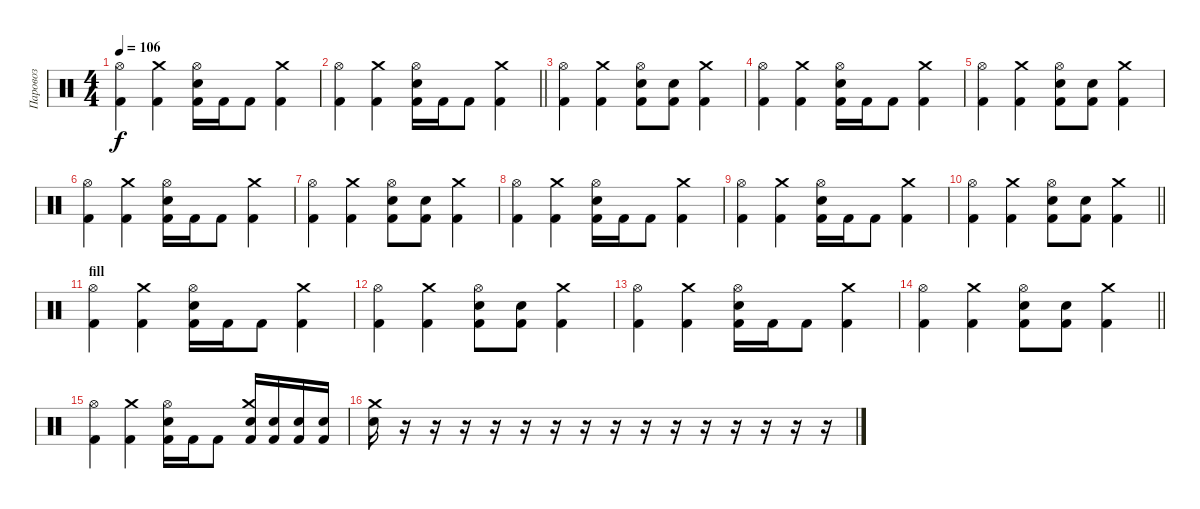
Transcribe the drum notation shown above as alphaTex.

\track ("Паровоз" "Паровоз") {instrument percussion}
\staff {score}
\articulation defaults
\ts (4 4)
\tempo 106
\clef neutral
\ks c
("Hi-Hat (open)" "Kick (hit) 2").4{dy f} ("Crash medium (hit)" "Kick (hit) 2").4 ("Hi-Hat (open)" "Electric Snare (hit)" "Kick (hit) 2").16 "Kick (hit) 2".16 "Kick (hit) 2".8 ("Crash medium (hit)" "Kick (hit) 2").4 |
\barLineRight lightlight
("Hi-Hat (open)" "Kick (hit) 2").4 ("Crash medium (hit)" "Kick (hit) 2").4 ("Hi-Hat (open)" "Electric Snare (hit)" "Kick (hit) 2").16 "Kick (hit) 2".16 "Kick (hit) 2".8 ("Crash medium (hit)" "Kick (hit) 2").4 |
("Hi-Hat (open)" "Kick (hit) 2").4 ("Crash medium (hit)" "Kick (hit) 2").4 ("Hi-Hat (open)" "Electric Snare (hit)" "Kick (hit) 2").8 ("Electric Snare (hit)" "Kick (hit) 2").8 ("Crash medium (hit)" "Kick (hit) 2").4 |
("Hi-Hat (open)" "Kick (hit) 2").4 ("Crash medium (hit)" "Kick (hit) 2").4 ("Hi-Hat (open)" "Electric Snare (hit)" "Kick (hit) 2").16 "Kick (hit) 2".16 "Kick (hit) 2".8 ("Crash medium (hit)" "Kick (hit) 2").4 |
("Hi-Hat (open)" "Kick (hit) 2").4 ("Crash medium (hit)" "Kick (hit) 2").4 ("Hi-Hat (open)" "Electric Snare (hit)" "Kick (hit) 2").8 ("Electric Snare (hit)" "Kick (hit) 2").8 ("Crash medium (hit)" "Kick (hit) 2").4 |
("Hi-Hat (open)" "Kick (hit) 2").4 ("Crash medium (hit)" "Kick (hit) 2").4 ("Hi-Hat (open)" "Electric Snare (hit)" "Kick (hit) 2").16 "Kick (hit) 2".16 "Kick (hit) 2".8 ("Crash medium (hit)" "Kick (hit) 2").4 |
("Hi-Hat (open)" "Kick (hit) 2").4 ("Crash medium (hit)" "Kick (hit) 2").4 ("Hi-Hat (open)" "Electric Snare (hit)" "Kick (hit) 2").8 ("Electric Snare (hit)" "Kick (hit) 2").8 ("Crash medium (hit)" "Kick (hit) 2").4 |
("Hi-Hat (open)" "Kick (hit) 2").4 ("Crash medium (hit)" "Kick (hit) 2").4 ("Hi-Hat (open)" "Electric Snare (hit)" "Kick (hit) 2").16 "Kick (hit) 2".16 "Kick (hit) 2".8 ("Crash medium (hit)" "Kick (hit) 2").4 |
("Hi-Hat (open)" "Kick (hit) 2").4 ("Crash medium (hit)" "Kick (hit) 2").4 ("Hi-Hat (open)" "Electric Snare (hit)" "Kick (hit) 2").16 "Kick (hit) 2".16 "Kick (hit) 2".8 ("Crash medium (hit)" "Kick (hit) 2").4 |
\barLineRight lightlight
("Hi-Hat (open)" "Kick (hit) 2").4 ("Crash medium (hit)" "Kick (hit) 2").4 ("Hi-Hat (open)" "Electric Snare (hit)" "Kick (hit) 2").8 ("Electric Snare (hit)" "Kick (hit) 2").8 ("Crash medium (hit)" "Kick (hit) 2").4 |
\section ("" "fill")
("Hi-Hat (open)" "Kick (hit) 2").4 ("Crash medium (hit)" "Kick (hit) 2").4 ("Hi-Hat (open)" "Electric Snare (hit)" "Kick (hit) 2").16 "Kick (hit) 2".16 "Kick (hit) 2".8 ("Crash medium (hit)" "Kick (hit) 2").4 |
("Hi-Hat (open)" "Kick (hit) 2").4 ("Crash medium (hit)" "Kick (hit) 2").4 ("Hi-Hat (open)" "Electric Snare (hit)" "Kick (hit) 2").8 ("Electric Snare (hit)" "Kick (hit) 2").8 ("Crash medium (hit)" "Kick (hit) 2").4 |
("Hi-Hat (open)" "Kick (hit) 2").4 ("Crash medium (hit)" "Kick (hit) 2").4 ("Hi-Hat (open)" "Electric Snare (hit)" "Kick (hit) 2").16 "Kick (hit) 2".16 "Kick (hit) 2".8 ("Crash medium (hit)" "Kick (hit) 2").4 |
\barLineRight lightlight
("Hi-Hat (open)" "Kick (hit) 2").4 ("Crash medium (hit)" "Kick (hit) 2").4 ("Hi-Hat (open)" "Electric Snare (hit)" "Kick (hit) 2").8 ("Electric Snare (hit)" "Kick (hit) 2").8 ("Crash medium (hit)" "Kick (hit) 2").4 |
("Hi-Hat (open)" "Kick (hit) 2").4 ("Crash medium (hit)" "Kick (hit) 2").4 ("Hi-Hat (open)" "Electric Snare (hit)" "Kick (hit) 2").16 "Kick (hit) 2".16 "Kick (hit) 2".8 ("Crash medium (hit)" "Electric Snare (hit)" "Kick (hit) 2").16 ("Electric Snare (hit)" "Kick (hit) 2").16 ("Electric Snare (hit)" "Kick (hit) 2").16 ("Electric Snare (hit)" "Kick (hit) 2").16 |
("Crash medium (hit)" "Electric Snare (hit)").16 r.16 r.16 r.16 r.16 r.16 r.16 r.16 r.16 r.16 r.16 r.16 r.16 r.16 r.16 r.16
